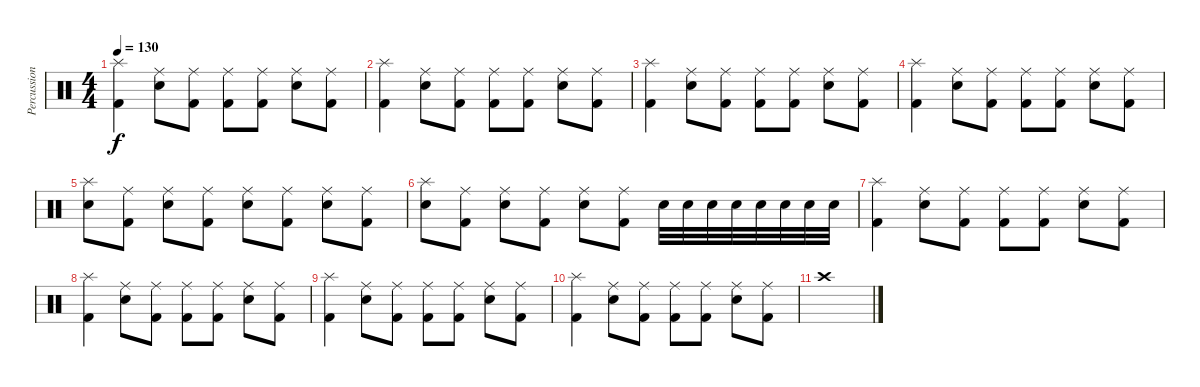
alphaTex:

\track ("Percussion" "Percussion") {instrument percussion}
\staff {score}
\articulation defaults
\ts (4 4)
\tempo 130
\clef neutral
\ks c
("Splash (hit)" "Kick (hit) 2").4{dy f} ("Ride (middle)" "Snare (hit) 2").8 ("Ride (middle)" "Kick (hit) 2").8 ("Ride (middle)" "Kick (hit) 2").8 ("Ride (middle)" "Kick (hit) 2").8 ("Ride (middle)" "Snare (hit) 2").8 ("Ride (middle)" "Kick (hit) 2").8 |
("Splash (hit)" "Kick (hit) 2").4 ("Ride (middle)" "Snare (hit) 2").8 ("Ride (middle)" "Kick (hit) 2").8 ("Ride (middle)" "Kick (hit) 2").8 ("Ride (middle)" "Kick (hit) 2").8 ("Ride (middle)" "Snare (hit) 2").8 ("Ride (middle)" "Kick (hit) 2").8 |
("Splash (hit)" "Kick (hit) 2").4 ("Ride (middle)" "Snare (hit) 2").8 ("Ride (middle)" "Kick (hit) 2").8 ("Ride (middle)" "Kick (hit) 2").8 ("Ride (middle)" "Kick (hit) 2").8 ("Ride (middle)" "Snare (hit) 2").8 ("Ride (middle)" "Kick (hit) 2").8 |
("Splash (hit)" "Kick (hit) 2").4 ("Ride (middle)" "Snare (hit) 2").8 ("Ride (middle)" "Kick (hit) 2").8 ("Ride (middle)" "Kick (hit) 2").8 ("Ride (middle)" "Kick (hit) 2").8 ("Ride (middle)" "Snare (hit) 2").8 ("Ride (middle)" "Kick (hit) 2").8 |
("Splash (hit)" "Snare (hit) 2").8 ("Ride (middle)" "Kick (hit) 2").8 ("Ride (middle)" "Snare (hit) 2").8 ("Ride (middle)" "Kick (hit) 2").8 ("Ride (middle)" "Snare (hit) 2").8 ("Ride (middle)" "Kick (hit) 2").8 ("Ride (middle)" "Snare (hit) 2").8 ("Ride (middle)" "Kick (hit) 2").8 |
("Splash (hit)" "Snare (hit) 2").8 ("Ride (middle)" "Kick (hit) 2").8 ("Ride (middle)" "Snare (hit) 2").8 ("Ride (middle)" "Kick (hit) 2").8 ("Ride (middle)" "Snare (hit) 2").8 ("Ride (middle)" "Kick (hit) 2").8 "Snare (hit) 2".32 "Snare (hit) 2".32 "Snare (hit) 2".32 "Snare (hit) 2".32 "Snare (hit) 2".32 "Snare (hit) 2".32 "Snare (hit) 2".32 "Snare (hit) 2".32 |
("Splash (hit)" "Kick (hit) 2").4 ("Ride (middle)" "Snare (hit) 2").8 ("Ride (middle)" "Kick (hit) 2").8 ("Ride (middle)" "Kick (hit) 2").8 ("Ride (middle)" "Kick (hit) 2").8 ("Ride (middle)" "Snare (hit) 2").8 ("Ride (middle)" "Kick (hit) 2").8 |
("Splash (hit)" "Kick (hit) 2").4 ("Ride (middle)" "Snare (hit) 2").8 ("Ride (middle)" "Kick (hit) 2").8 ("Ride (middle)" "Kick (hit) 2").8 ("Ride (middle)" "Kick (hit) 2").8 ("Ride (middle)" "Snare (hit) 2").8 ("Ride (middle)" "Kick (hit) 2").8 |
("Splash (hit)" "Kick (hit) 2").4 ("Ride (middle)" "Snare (hit) 2").8 ("Ride (middle)" "Kick (hit) 2").8 ("Ride (middle)" "Kick (hit) 2").8 ("Ride (middle)" "Kick (hit) 2").8 ("Ride (middle)" "Snare (hit) 2").8 ("Ride (middle)" "Kick (hit) 2").8 |
("Splash (hit)" "Kick (hit) 2").4 ("Ride (middle)" "Snare (hit) 2").8 ("Ride (middle)" "Kick (hit) 2").8 ("Ride (middle)" "Kick (hit) 2").8 ("Ride (middle)" "Kick (hit) 2").8 ("Ride (middle)" "Snare (hit) 2").8 ("Ride (middle)" "Kick (hit) 2").8 |
"Crash high (hit)".1
